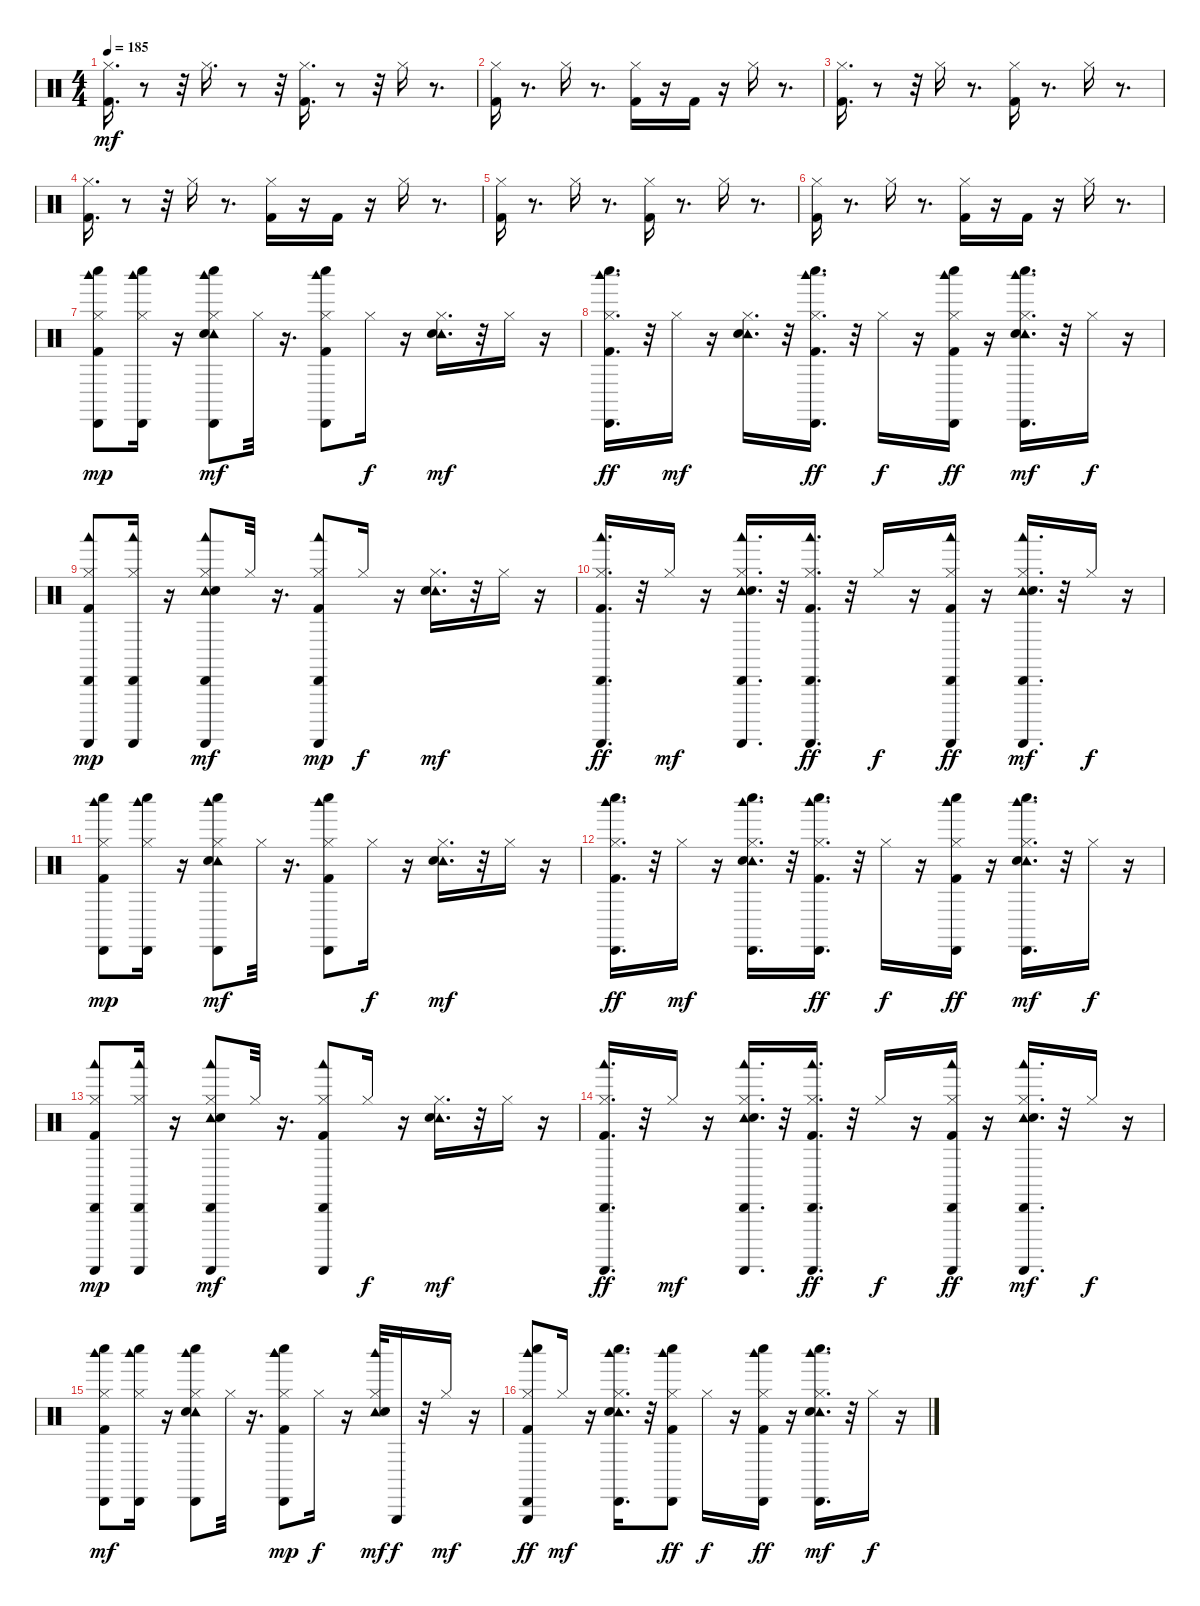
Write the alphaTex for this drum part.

\track "" {instrument percussion}
\staff {score}
\articulation defaults
\ts (4 4)
\tempo 185
\clef neutral
\ks c
("Kick (hit) 2" "Hi-Hat (closed)").16{d dy mf} r.8 r.32 "Hi-Hat (closed)".16{d} r.8 r.32 ("Kick (hit) 2" "Hi-Hat (closed)").16{d} r.8 r.32 "Hi-Hat (closed)".16 r.8{d} |
("Kick (hit) 2" "Hi-Hat (closed)").16 r.8{d} "Hi-Hat (closed)".16 r.8{d} ("Kick (hit) 2" "Hi-Hat (closed)").16 r.16 "Kick (hit) 2".16 r.16 "Hi-Hat (closed)".16 r.8{d} |
("Kick (hit) 2" "Hi-Hat (closed)").16{d} r.8 r.32 "Hi-Hat (closed)".16 r.8{d} ("Kick (hit) 2" "Hi-Hat (closed)").16 r.8{d} "Hi-Hat (closed)".16 r.8{d} |
("Kick (hit) 2" "Hi-Hat (closed)").16{d} r.8 r.32 "Hi-Hat (closed)".16 r.8{d} ("Kick (hit) 2" "Hi-Hat (closed)").16 r.16 "Kick (hit) 2".16 r.16 "Hi-Hat (closed)".16 r.8{d} |
("Kick (hit) 2" "Hi-Hat (closed)").16 r.8{d} "Hi-Hat (closed)".16 r.8{d} ("Kick (hit) 2" "Hi-Hat (closed)").16 r.8{d} "Hi-Hat (closed)".16 r.8{d} |
("Kick (hit) 2" "Hi-Hat (closed)").16 r.8{d} "Hi-Hat (closed)".16 r.8{d} ("Kick (hit) 2" "Hi-Hat (closed)").16 r.16 "Kick (hit) 2".16 r.16 "Hi-Hat (closed)".16 r.8{d} |
("Whistle low (hit)" "Cabasa (hit)" "Woodblock high (hit)" "Hi-Hat (closed)" "Kick (hit) 2").8{dy mp} ("Cabasa (hit)" "Whistle low (hit)" "Woodblock high (hit)" "Hi-Hat (closed)").16 r.16 ("Cabasa (hit)" "Whistle low (hit)" "Woodblock high (hit)" "Tambourine (hit)" "Hi-Hat (closed)" "Snare (hit) 2").8{dy mf} "Hi-Hat (closed)".32 r.16{d} ("Cabasa (hit)" "Whistle low (hit)" "Woodblock high (hit)" "Hi-Hat (closed)" "Kick (hit) 2").8 "Hi-Hat (closed)".16{dy f} r.16 ("Tambourine (hit)" "Hi-Hat (closed)" "Snare (hit) 2").16{d dy mf} r.32 "Hi-Hat (closed)".16 r.16 |
("Cabasa (hit)" "Whistle low (hit)" "Woodblock high (hit)" "Hi-Hat (closed)" "Kick (hit) 2").16{d dy ff} r.32 "Hi-Hat (closed)".16{dy mf} r.16 ("Tambourine (hit)" "Hi-Hat (closed)" "Snare (hit) 2").16{d} r.32 ("Whistle low (hit)" "Cabasa (hit)" "Woodblock high (hit)" "Hi-Hat (closed)" "Kick (hit) 2").16{d dy ff} r.32 "Hi-Hat (closed)".16{dy f} r.16 ("Cabasa (hit)" "Whistle low (hit)" "Woodblock high (hit)" "Hi-Hat (closed)" "Kick (hit) 2").16{dy ff} r.16 ("Cabasa (hit)" "Whistle low (hit)" "Woodblock high (hit)" "Tambourine (hit)" "Hi-Hat (closed)" "Snare (hit) 2").16{d dy mf} r.32 "Hi-Hat (closed)".16{dy f} r.16 |
("Cabasa (hit)" "Woodblock low (hit)" "Guiro (scrap-return)" "Hi-Hat (closed)" "Kick (hit) 2").8{dy mp} ("Cabasa (hit)" "Guiro (scrap-return)" "Woodblock low (hit)" "Hi-Hat (closed)").16 r.16 ("Cabasa (hit)" "Woodblock low (hit)" "Guiro (scrap-return)" "Tambourine (hit)" "Hi-Hat (closed)" "Snare (hit) 2").8{dy mf} "Hi-Hat (closed)".32 r.16{d} ("Woodblock low (hit)" "Cabasa (hit)" "Guiro (scrap-return)" "Hi-Hat (closed)" "Kick (hit) 2").8{dy mp} "Hi-Hat (closed)".16{dy f} r.16 ("Tambourine (hit)" "Hi-Hat (closed)" "Snare (hit) 2").16{d dy mf} r.32 "Hi-Hat (closed)".16 r.16 |
("Cabasa (hit)" "Guiro (scrap-return)" "Woodblock low (hit)" "Hi-Hat (closed)" "Kick (hit) 2").16{d dy ff} r.32 "Hi-Hat (closed)".16{dy mf} r.16 ("Guiro (scrap-return)" "Cabasa (hit)" "Woodblock low (hit)" "Tambourine (hit)" "Hi-Hat (closed)" "Snare (hit) 2").16{d} r.32 ("Cabasa (hit)" "Woodblock low (hit)" "Guiro (scrap-return)" "Hi-Hat (closed)" "Kick (hit) 2").16{d dy ff} r.32 "Hi-Hat (closed)".16{dy f} r.16 ("Cabasa (hit)" "Woodblock low (hit)" "Guiro (scrap-return)" "Hi-Hat (closed)" "Kick (hit) 2").16{dy ff} r.16 ("Woodblock low (hit)" "Cabasa (hit)" "Guiro (scrap-return)" "Tambourine (hit)" "Hi-Hat (closed)" "Snare (hit) 2").16{d dy mf} r.32 "Hi-Hat (closed)".16{dy f} r.16 |
("Whistle low (hit)" "Woodblock high (hit)" "Cabasa (hit)" "Hi-Hat (closed)" "Kick (hit) 2").8{dy mp} ("Cabasa (hit)" "Woodblock high (hit)" "Whistle low (hit)" "Hi-Hat (closed)").16 r.16 ("Whistle low (hit)" "Cabasa (hit)" "Woodblock high (hit)" "Tambourine (hit)" "Hi-Hat (closed)" "Snare (hit) 2").8{dy mf} "Hi-Hat (closed)".32 r.16{d} ("Cabasa (hit)" "Woodblock high (hit)" "Whistle low (hit)" "Hi-Hat (closed)" "Kick (hit) 2").8 "Hi-Hat (closed)".16{dy f} r.16 ("Tambourine (hit)" "Hi-Hat (closed)" "Snare (hit) 2").16{d dy mf} r.32 "Hi-Hat (closed)".16 r.16 |
("Cabasa (hit)" "Whistle low (hit)" "Woodblock high (hit)" "Hi-Hat (closed)" "Kick (hit) 2").16{d dy ff} r.32 "Hi-Hat (closed)".16{dy mf} r.16 ("Whistle low (hit)" "Cabasa (hit)" "Woodblock high (hit)" "Tambourine (hit)" "Hi-Hat (closed)" "Snare (hit) 2").16{d} r.32 ("Whistle low (hit)" "Cabasa (hit)" "Woodblock high (hit)" "Hi-Hat (closed)" "Kick (hit) 2").16{d dy ff} r.32 "Hi-Hat (closed)".16{dy f} r.16 ("Cabasa (hit)" "Whistle low (hit)" "Woodblock high (hit)" "Hi-Hat (closed)" "Kick (hit) 2").16{dy ff} r.16 ("Cabasa (hit)" "Whistle low (hit)" "Woodblock high (hit)" "Tambourine (hit)" "Hi-Hat (closed)" "Snare (hit) 2").16{d dy mf} r.32 "Hi-Hat (closed)".16{dy f} r.16 |
("Cabasa (hit)" "Woodblock low (hit)" "Guiro (scrap-return)" "Hi-Hat (closed)" "Kick (hit) 2").8{dy mp} ("Woodblock low (hit)" "Cabasa (hit)" "Guiro (scrap-return)" "Hi-Hat (closed)").16 r.16 ("Woodblock low (hit)" "Guiro (scrap-return)" "Cabasa (hit)" "Tambourine (hit)" "Hi-Hat (closed)" "Snare (hit) 2").8{dy mf} "Hi-Hat (closed)".32 r.16{d} ("Woodblock low (hit)" "Guiro (scrap-return)" "Cabasa (hit)" "Hi-Hat (closed)" "Kick (hit) 2").8 "Hi-Hat (closed)".16{dy f} r.16 ("Tambourine (hit)" "Hi-Hat (closed)" "Snare (hit) 2").16{d dy mf} r.32 "Hi-Hat (closed)".16 r.16 |
("Cabasa (hit)" "Woodblock low (hit)" "Guiro (scrap-return)" "Hi-Hat (closed)" "Kick (hit) 2").16{d dy ff} r.32 "Hi-Hat (closed)".16{dy mf} r.16 ("Cabasa (hit)" "Woodblock low (hit)" "Guiro (scrap-return)" "Tambourine (hit)" "Hi-Hat (closed)" "Snare (hit) 2").16{d} r.32 ("Cabasa (hit)" "Woodblock low (hit)" "Guiro (scrap-return)" "Hi-Hat (closed)" "Kick (hit) 2").16{d dy ff} r.32 "Hi-Hat (closed)".16{dy f} r.16 ("Cabasa (hit)" "Woodblock low (hit)" "Guiro (scrap-return)" "Hi-Hat (closed)" "Kick (hit) 2").16{dy ff} r.16 ("Woodblock low (hit)" "Cabasa (hit)" "Guiro (scrap-return)" "Tambourine (hit)" "Hi-Hat (closed)" "Snare (hit) 2").16{d dy mf} r.32 "Hi-Hat (closed)".16{dy f} r.16 |
("Whistle low (hit)" "Cabasa (hit)" "Woodblock high (hit)" "Hi-Hat (closed)" "Kick (hit) 2").8{dy mf} ("Whistle low (hit)" "Cabasa (hit)" "Woodblock high (hit)" "Hi-Hat (closed)").16 r.16 ("Cabasa (hit)" "Whistle low (hit)" "Woodblock high (hit)" "Tambourine (hit)" "Hi-Hat (closed)" "Snare (hit) 2").8 "Hi-Hat (closed)".32 r.16{d} ("Woodblock high (hit)" "Whistle low (hit)" "Cabasa (hit)" "Hi-Hat (closed)" "Kick (hit) 2" "Woodblock high (hit)").8{dy mp} "Hi-Hat (closed)".16{dy f} r.16 ("Tambourine (hit)" "Hi-Hat (closed)" "Snare (hit) 2" "Woodblock high (hit)").32{dy mf} "Triangle (hit)".16{dy f} r.32 "Hi-Hat (closed)".16{dy mf} r.16 |
("Cabasa (hit)" "Whistle low (hit)" "Woodblock high (hit)" "Hi-Hat (closed)" "Kick (hit) 2" "Triangle (hit)").8{dy ff} "Hi-Hat (closed)".16{dy mf} r.16 ("Cabasa (hit)" "Whistle low (hit)" "Woodblock high (hit)" "Tambourine (hit)" "Hi-Hat (closed)" "Snare (hit) 2").16{d} r.32 ("Whistle low (hit)" "Cabasa (hit)" "Woodblock high (hit)" "Hi-Hat (closed)" "Kick (hit) 2").8{dy ff} "Hi-Hat (closed)".16{dy f} r.16 ("Cabasa (hit)" "Whistle low (hit)" "Woodblock high (hit)" "Hi-Hat (closed)" "Kick (hit) 2").16{dy ff} r.16 ("Whistle low (hit)" "Cabasa (hit)" "Woodblock high (hit)" "Tambourine (hit)" "Hi-Hat (closed)" "Snare (hit) 2").16{d dy mf} r.32 "Hi-Hat (closed)".16{dy f} r.16
